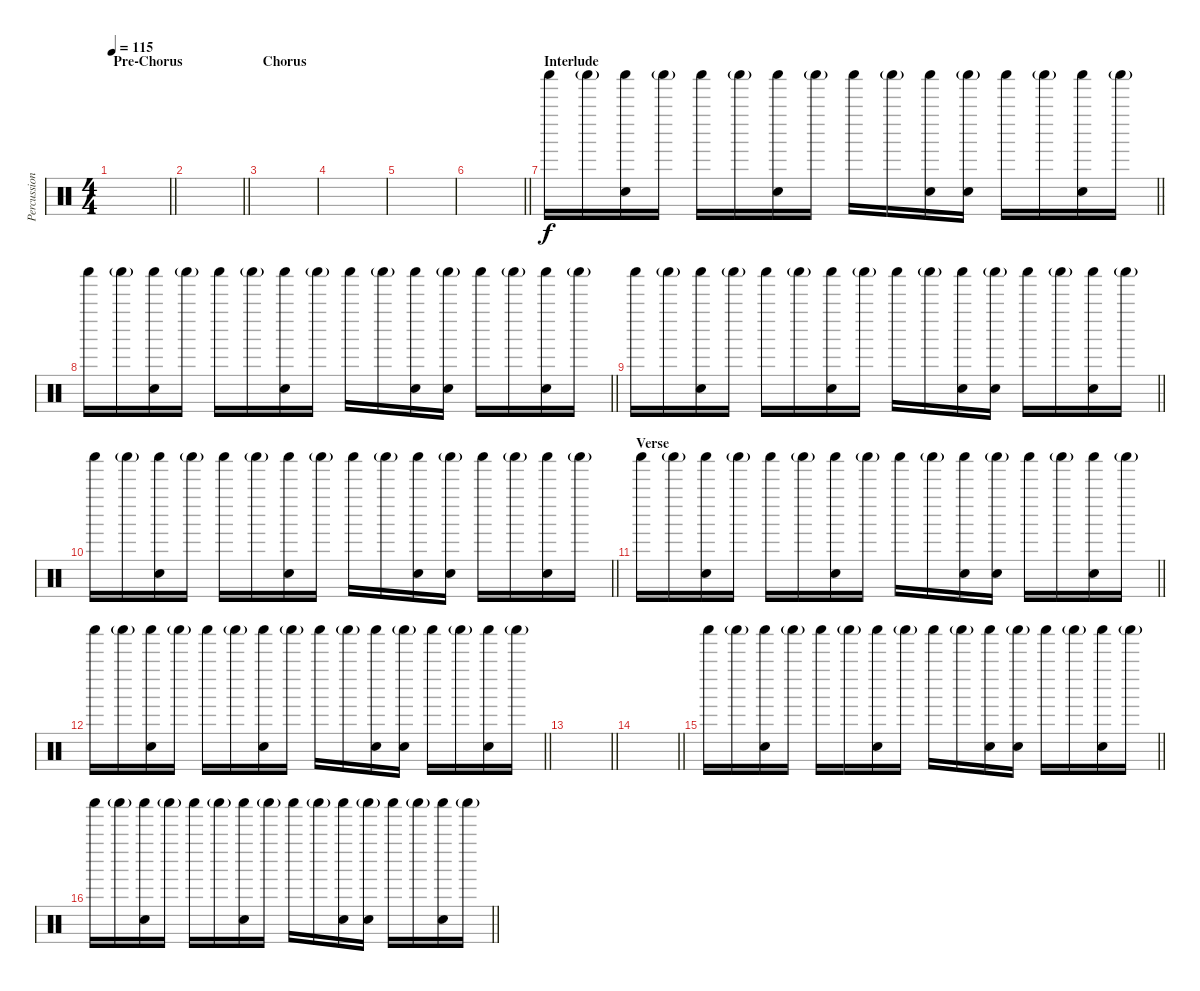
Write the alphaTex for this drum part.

\track ("Percussion 1" "Percussion") {instrument percussion}
\staff {score}
\articulation defaults
\ts (4 4)
\section ("" "Pre-Chorus")
\tempo 115
\clef neutral
\barLineRight lightlight
\ks c
|
\barLineRight lightlight
|
\section ("" "Chorus")
|
|
|
\barLineRight lightlight
|
\section ("" "Interlude")
\barLineRight lightlight "Shaker (hit)".16 "Shaker (hit)"{g}.16
("Shaker (hit)" "Hand Clap (hit)").16 "Shaker (hit)"{g}.16 "Shaker (hit)".16 "Shaker (hit)"{g}.16 ("Shaker (hit)" "Hand Clap (hit)").16 "Shaker (hit)"{g}.16 "Shaker (hit)".16 "Shaker (hit)"{g}.16 ("Shaker (hit)" "Hand Clap (hit)").16 ("Shaker (hit)"{g} "Hand Clap (hit)").16 "Shaker (hit)".16 "Shaker (hit)"{g}.16 ("Shaker (hit)" "Hand Clap (hit)").16 "Shaker (hit)"{g}.16 |
\barLineRight lightlight "Shaker (hit)".16 "Shaker (hit)"{g}.16
("Shaker (hit)" "Hand Clap (hit)").16 "Shaker (hit)"{g}.16 "Shaker (hit)".16 "Shaker (hit)"{g}.16 ("Shaker (hit)" "Hand Clap (hit)").16 "Shaker (hit)"{g}.16 "Shaker (hit)".16 "Shaker (hit)"{g}.16 ("Shaker (hit)" "Hand Clap (hit)").16 ("Shaker (hit)"{g} "Hand Clap (hit)").16 "Shaker (hit)".16 "Shaker (hit)"{g}.16 ("Shaker (hit)" "Hand Clap (hit)").16 "Shaker (hit)"{g}.16 |
\barLineRight lightlight "Shaker (hit)".16 "Shaker (hit)"{g}.16
("Shaker (hit)" "Hand Clap (hit)").16 "Shaker (hit)"{g}.16 "Shaker (hit)".16 "Shaker (hit)"{g}.16 ("Shaker (hit)" "Hand Clap (hit)").16 "Shaker (hit)"{g}.16 "Shaker (hit)".16 "Shaker (hit)"{g}.16 ("Shaker (hit)" "Hand Clap (hit)").16 ("Shaker (hit)"{g} "Hand Clap (hit)").16 "Shaker (hit)".16 "Shaker (hit)"{g}.16 ("Shaker (hit)" "Hand Clap (hit)").16 "Shaker (hit)"{g}.16 |
\barLineRight lightlight "Shaker (hit)".16 "Shaker (hit)"{g}.16
("Shaker (hit)" "Hand Clap (hit)").16 "Shaker (hit)"{g}.16 "Shaker (hit)".16 "Shaker (hit)"{g}.16 ("Shaker (hit)" "Hand Clap (hit)").16 "Shaker (hit)"{g}.16 "Shaker (hit)".16 "Shaker (hit)"{g}.16 ("Shaker (hit)" "Hand Clap (hit)").16 ("Shaker (hit)"{g} "Hand Clap (hit)").16 "Shaker (hit)".16 "Shaker (hit)"{g}.16 ("Shaker (hit)" "Hand Clap (hit)").16 "Shaker (hit)"{g}.16 |
\section ("" "Verse")
\barLineRight lightlight "Shaker (hit)".16 "Shaker (hit)"{g}.16
("Shaker (hit)" "Hand Clap (hit)").16 "Shaker (hit)"{g}.16 "Shaker (hit)".16 "Shaker (hit)"{g}.16 ("Shaker (hit)" "Hand Clap (hit)").16 "Shaker (hit)"{g}.16 "Shaker (hit)".16 "Shaker (hit)"{g}.16 ("Shaker (hit)" "Hand Clap (hit)").16 ("Shaker (hit)"{g} "Hand Clap (hit)").16 "Shaker (hit)".16 "Shaker (hit)"{g}.16 ("Shaker (hit)" "Hand Clap (hit)").16 "Shaker (hit)"{g}.16 |
\barLineRight lightlight "Shaker (hit)".16 "Shaker (hit)"{g}.16
("Shaker (hit)" "Hand Clap (hit)").16 "Shaker (hit)"{g}.16 "Shaker (hit)".16 "Shaker (hit)"{g}.16 ("Shaker (hit)" "Hand Clap (hit)").16 "Shaker (hit)"{g}.16 "Shaker (hit)".16 "Shaker (hit)"{g}.16 ("Shaker (hit)" "Hand Clap (hit)").16 ("Shaker (hit)"{g} "Hand Clap (hit)").16 "Shaker (hit)".16 "Shaker (hit)"{g}.16 ("Shaker (hit)" "Hand Clap (hit)").16 "Shaker (hit)"{g}.16 |
\barLineRight lightlight
|
\barLineRight lightlight
|
\barLineRight lightlight "Shaker (hit)".16 "Shaker (hit)"{g}.16
("Shaker (hit)" "Hand Clap (hit)").16 "Shaker (hit)"{g}.16 "Shaker (hit)".16 "Shaker (hit)"{g}.16 ("Shaker (hit)" "Hand Clap (hit)").16 "Shaker (hit)"{g}.16 "Shaker (hit)".16 "Shaker (hit)"{g}.16 ("Shaker (hit)" "Hand Clap (hit)").16 ("Shaker (hit)"{g} "Hand Clap (hit)").16 "Shaker (hit)".16 "Shaker (hit)"{g}.16 ("Shaker (hit)" "Hand Clap (hit)").16 "Shaker (hit)"{g}.16 |
\barLineRight lightlight "Shaker (hit)".16 "Shaker (hit)"{g}.16
("Shaker (hit)" "Hand Clap (hit)").16 "Shaker (hit)"{g}.16 "Shaker (hit)".16 "Shaker (hit)"{g}.16 ("Shaker (hit)" "Hand Clap (hit)").16 "Shaker (hit)"{g}.16 "Shaker (hit)".16 "Shaker (hit)"{g}.16 ("Shaker (hit)" "Hand Clap (hit)").16 ("Shaker (hit)"{g} "Hand Clap (hit)").16 "Shaker (hit)".16 "Shaker (hit)"{g}.16 ("Shaker (hit)" "Hand Clap (hit)").16 "Shaker (hit)"{g}.16
